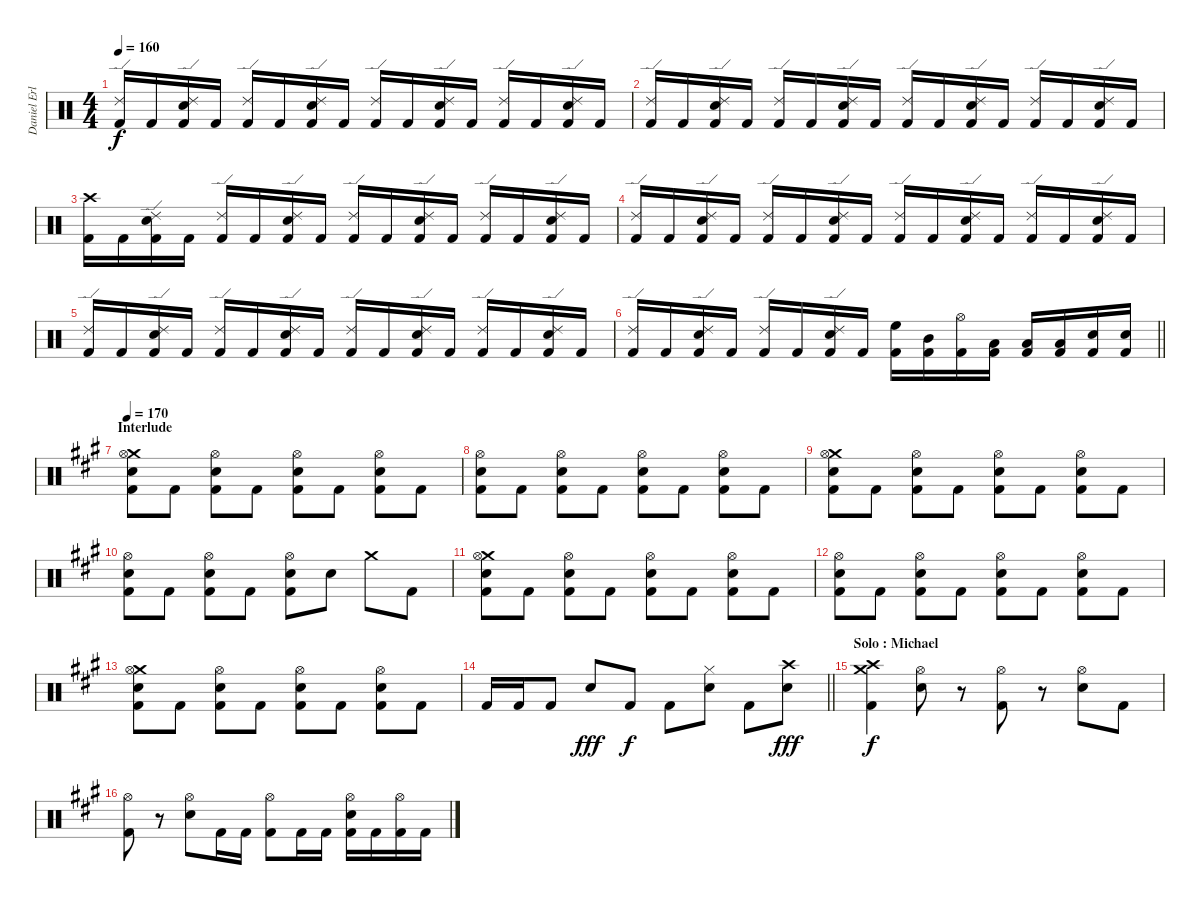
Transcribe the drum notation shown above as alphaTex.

\track ("Daniel Erlandsson" "Daniel Erl") {instrument percussion}
\staff {score}
\articulation defaults
\ts (4 4)
\tempo 160
\clef neutral
\ks c
("Ride (edge) 2" "Kick (hit) 2").16{dy f} "Kick (hit) 2".16 ("Ride (edge) 2" "Electric Snare (hit)" "Kick (hit) 2").16 "Kick (hit) 2".16 ("Ride (edge) 2" "Kick (hit) 2").16 "Kick (hit) 2".16 ("Ride (edge) 2" "Electric Snare (hit)" "Kick (hit) 2").16 "Kick (hit) 2".16 ("Ride (edge) 2" "Kick (hit) 2").16 "Kick (hit) 2".16 ("Ride (edge) 2" "Electric Snare (hit)" "Kick (hit) 2").16 "Kick (hit) 2".16 ("Ride (edge) 2" "Kick (hit) 2").16 "Kick (hit) 2".16 ("Ride (edge) 2" "Electric Snare (hit)" "Kick (hit) 2").16 "Kick (hit) 2".16 |
("Ride (edge) 2" "Kick (hit) 2").16 "Kick (hit) 2".16 ("Ride (edge) 2" "Electric Snare (hit)" "Kick (hit) 2").16 "Kick (hit) 2".16 ("Ride (edge) 2" "Kick (hit) 2").16 "Kick (hit) 2".16 ("Ride (edge) 2" "Electric Snare (hit)" "Kick (hit) 2").16 "Kick (hit) 2".16 ("Ride (edge) 2" "Kick (hit) 2").16 "Kick (hit) 2".16 ("Ride (edge) 2" "Electric Snare (hit)" "Kick (hit) 2").16 "Kick (hit) 2".16 ("Ride (edge) 2" "Kick (hit) 2").16 "Kick (hit) 2".16 ("Ride (edge) 2" "Electric Snare (hit)" "Kick (hit) 2").16 "Kick (hit) 2".16 |
("Crash high (hit)" "Kick (hit) 2").16 "Kick (hit) 2".16 ("Ride (edge) 2" "Electric Snare (hit)" "Kick (hit) 2").16 "Kick (hit) 2".16 ("Ride (edge) 2" "Kick (hit) 2").16 "Kick (hit) 2".16 ("Ride (edge) 2" "Electric Snare (hit)" "Kick (hit) 2").16 "Kick (hit) 2".16 ("Ride (edge) 2" "Kick (hit) 2").16 "Kick (hit) 2".16 ("Ride (edge) 2" "Electric Snare (hit)" "Kick (hit) 2").16 "Kick (hit) 2".16 ("Ride (edge) 2" "Kick (hit) 2").16 "Kick (hit) 2".16 ("Ride (edge) 2" "Electric Snare (hit)" "Kick (hit) 2").16 "Kick (hit) 2".16 |
("Ride (edge) 2" "Kick (hit) 2").16 "Kick (hit) 2".16 ("Ride (edge) 2" "Electric Snare (hit)" "Kick (hit) 2").16 "Kick (hit) 2".16 ("Ride (edge) 2" "Kick (hit) 2").16 "Kick (hit) 2".16 ("Ride (edge) 2" "Electric Snare (hit)" "Kick (hit) 2").16 "Kick (hit) 2".16 ("Ride (edge) 2" "Kick (hit) 2").16 "Kick (hit) 2".16 ("Ride (edge) 2" "Electric Snare (hit)" "Kick (hit) 2").16 "Kick (hit) 2".16 ("Ride (edge) 2" "Kick (hit) 2").16 "Kick (hit) 2".16 ("Ride (edge) 2" "Electric Snare (hit)" "Kick (hit) 2").16 "Kick (hit) 2".16 |
("Ride (edge) 2" "Kick (hit) 2").16 "Kick (hit) 2".16 ("Ride (edge) 2" "Electric Snare (hit)" "Kick (hit) 2").16 "Kick (hit) 2".16 ("Ride (edge) 2" "Kick (hit) 2").16 "Kick (hit) 2".16 ("Ride (edge) 2" "Electric Snare (hit)" "Kick (hit) 2").16 "Kick (hit) 2".16 ("Ride (edge) 2" "Kick (hit) 2").16 "Kick (hit) 2".16 ("Ride (edge) 2" "Electric Snare (hit)" "Kick (hit) 2").16 "Kick (hit) 2".16 ("Ride (edge) 2" "Kick (hit) 2").16 "Kick (hit) 2".16 ("Ride (edge) 2" "Electric Snare (hit)" "Kick (hit) 2").16 "Kick (hit) 2".16 |
\barLineRight lightlight
("Ride (edge) 2" "Kick (hit) 2").16 "Kick (hit) 2".16 ("Ride (edge) 2" "Electric Snare (hit)" "Kick (hit) 2").16 "Kick (hit) 2".16 ("Ride (edge) 2" "Kick (hit) 2").16 "Kick (hit) 2".16 ("Ride (edge) 2" "Electric Snare (hit)" "Kick (hit) 2").16 "Kick (hit) 2".16 ("High Floor Tom (hit)" "Kick (hit) 2").16 ("Mid Tom (hit)" "Kick (hit) 2").16 ("Hi-Hat (open)" "Kick (hit) 2").16 ("Low Floor Tom (hit)" "Kick (hit) 2").16 ("Low Tom (hit)" "Kick (hit) 2").16 ("Low Floor Tom (hit)" "Kick (hit) 2").16 ("Electric Snare (hit)" "Kick (hit) 2").16 ("Electric Snare (hit)" "Kick (hit) 2").16 |
\section ("" "Interlude")
\tempo 170
\ks a
("Crash medium (hit)" "Hi-Hat (open)" "Electric Snare (hit)" "Kick (hit) 2").8 "Kick (hit) 2".8 ("Hi-Hat (open)" "Electric Snare (hit)" "Kick (hit) 2").8 "Kick (hit) 2".8 ("Hi-Hat (open)" "Electric Snare (hit)" "Kick (hit) 2").8 "Kick (hit) 2".8 ("Hi-Hat (open)" "Electric Snare (hit)" "Kick (hit) 2").8 "Kick (hit) 2".8 |
("Hi-Hat (open)" "Electric Snare (hit)" "Kick (hit) 2").8 "Kick (hit) 2".8 ("Hi-Hat (open)" "Electric Snare (hit)" "Kick (hit) 2").8 "Kick (hit) 2".8 ("Hi-Hat (open)" "Electric Snare (hit)" "Kick (hit) 2").8 "Kick (hit) 2".8 ("Hi-Hat (open)" "Electric Snare (hit)" "Kick (hit) 2").8 "Kick (hit) 2".8 |
("Crash medium (hit)" "Hi-Hat (open)" "Electric Snare (hit)" "Kick (hit) 2").8 "Kick (hit) 2".8 ("Hi-Hat (open)" "Electric Snare (hit)" "Kick (hit) 2").8 "Kick (hit) 2".8 ("Hi-Hat (open)" "Electric Snare (hit)" "Kick (hit) 2").8 "Kick (hit) 2".8 ("Hi-Hat (open)" "Electric Snare (hit)" "Kick (hit) 2").8 "Kick (hit) 2".8 |
("Hi-Hat (open)" "Electric Snare (hit)" "Kick (hit) 2").8 "Kick (hit) 2".8 ("Hi-Hat (open)" "Electric Snare (hit)" "Kick (hit) 2").8 "Kick (hit) 2".8 ("Hi-Hat (open)" "Electric Snare (hit)" "Kick (hit) 2").8 "Electric Snare (hit)".8 "Crash medium (hit)".8 "Kick (hit) 2".8 |
("Crash medium (hit)" "Hi-Hat (open)" "Electric Snare (hit)" "Kick (hit) 2").8 "Kick (hit) 2".8 ("Hi-Hat (open)" "Electric Snare (hit)" "Kick (hit) 2").8 "Kick (hit) 2".8 ("Hi-Hat (open)" "Electric Snare (hit)" "Kick (hit) 2").8 "Kick (hit) 2".8 ("Hi-Hat (open)" "Electric Snare (hit)" "Kick (hit) 2").8 "Kick (hit) 2".8 |
("Hi-Hat (open)" "Electric Snare (hit)" "Kick (hit) 2").8 "Kick (hit) 2".8 ("Hi-Hat (open)" "Electric Snare (hit)" "Kick (hit) 2").8 "Kick (hit) 2".8 ("Hi-Hat (open)" "Electric Snare (hit)" "Kick (hit) 2").8 "Kick (hit) 2".8 ("Hi-Hat (open)" "Electric Snare (hit)" "Kick (hit) 2").8 "Kick (hit) 2".8 |
("Crash medium (hit)" "Hi-Hat (open)" "Electric Snare (hit)" "Kick (hit) 2").8 "Kick (hit) 2".8 ("Hi-Hat (open)" "Electric Snare (hit)" "Kick (hit) 2").8 "Kick (hit) 2".8 ("Hi-Hat (open)" "Electric Snare (hit)" "Kick (hit) 2").8 "Kick (hit) 2".8 ("Hi-Hat (open)" "Electric Snare (hit)" "Kick (hit) 2").8 "Kick (hit) 2".8 |
\barLineRight lightlight "Kick (hit) 2".16 "Kick (hit) 2".16 "Kick (hit) 2".8 "Electric Snare (hit)".8{dy fff} "Kick (hit) 2".8{dy f} "Kick (hit) 2".8
("Hi-Hat (closed)" "Electric Snare (hit)").8 "Kick (hit) 2".8 ("Crash high (hit)" "Electric Snare (hit)").8{dy fff} |
\section ("" "Solo : Michael")
("Crash medium (hit)" "Crash high (hit)" "Kick (hit) 2").4{dy f} ("Hi-Hat (open)" "Electric Snare (hit)").8 r.8 ("Hi-Hat (open)" "Kick (hit) 2").8 r.8 ("Hi-Hat (open)" "Electric Snare (hit)").8 "Kick (hit) 2".8 |
("Hi-Hat (open)" "Kick (hit) 2").8 r.8 ("Hi-Hat (open)" "Electric Snare (hit)").8 "Kick (hit) 2".16 "Kick (hit) 2".16 ("Hi-Hat (open)" "Kick (hit) 2").8 "Kick (hit) 2".16 "Kick (hit) 2".16 ("Hi-Hat (open)" "Electric Snare (hit)" "Kick (hit) 2").16 "Kick (hit) 2".16 ("Hi-Hat (open)" "Kick (hit) 2").16 "Kick (hit) 2".16
